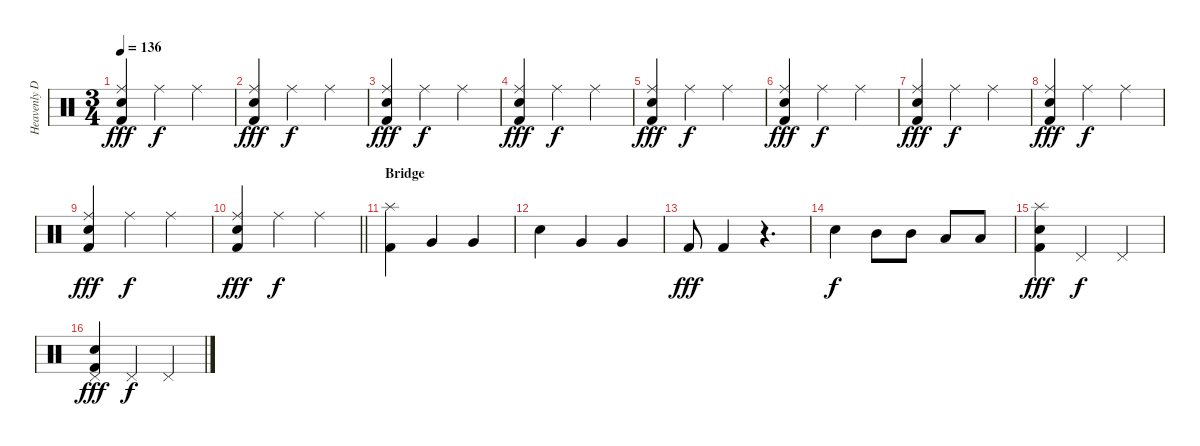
\track ("Heavenly Drums" "Heavenly D") {instrument percussion}
\staff {score}
\articulation defaults
\ts (3 4)
\tempo 136
\clef neutral
\ks c
("Snare (hit) 2" "Ride (middle)" "Kick (hit) 2").4{dy fff} "Ride (middle)".4{dy f} "Ride (middle)".4 |
("Snare (hit) 2" "Ride (middle)" "Kick (hit) 2").4{dy fff} "Ride (middle)".4{dy f} "Ride (middle)".4 |
("Snare (hit) 2" "Ride (middle)" "Kick (hit) 2").4{dy fff} "Ride (middle)".4{dy f} "Ride (middle)".4 |
("Snare (hit) 2" "Ride (middle)" "Kick (hit) 2").4{dy fff} "Ride (middle)".4{dy f} "Ride (middle)".4 |
("Snare (hit) 2" "Ride (middle)" "Kick (hit) 2").4{dy fff} "Ride (middle)".4{dy f} "Ride (middle)".4 |
("Snare (hit) 2" "Ride (middle)" "Kick (hit) 2").4{dy fff} "Ride (middle)".4{dy f} "Ride (middle)".4 |
("Snare (hit) 2" "Ride (middle)" "Kick (hit) 2").4{dy fff} "Ride (middle)".4{dy f} "Ride (middle)".4 |
("Snare (hit) 2" "Ride (middle)" "Kick (hit) 2").4{dy fff} "Ride (middle)".4{dy f} "Ride (middle)".4 |
("Snare (hit) 2" "Ride (middle)" "Kick (hit) 2").4{dy fff} "Ride (middle)".4{dy f} "Ride (middle)".4 |
\barLineRight lightlight
("Snare (hit) 2" "Ride (middle)" "Kick (hit) 2").4{dy fff} "Ride (middle)".4{dy f} "Ride (middle)".4 |
\section ("" "Bridge")
("Splash (hit)" "Kick (hit) 2").4 "Very Low Tom (hit)".4 "Very Low Tom (hit)".4 |
"Snare (hit) 2".4 "Very Low Tom (hit)".4 "Very Low Tom (hit)".4 |
"Kick (hit) 2".8{dy fff} "Kick (hit) 2".4 r.4{d} |
"Electric Snare (hit)".4{dy f} "Mid Tom (hit)".8 "Mid Tom (hit)".8 "Low Tom (hit)".8 "Low Tom (hit)".8 |
("Splash (hit)" "Snare (hit) 2" "Kick (hit) 2").4{dy fff} "Pedal Hi-Hat (hit)".4{dy f} "Pedal Hi-Hat (hit)".4 |
("Snare (hit) 2" "Pedal Hi-Hat (hit)" "Kick (hit) 2").4{dy fff} "Pedal Hi-Hat (hit)".4{dy f} "Pedal Hi-Hat (hit)".4
